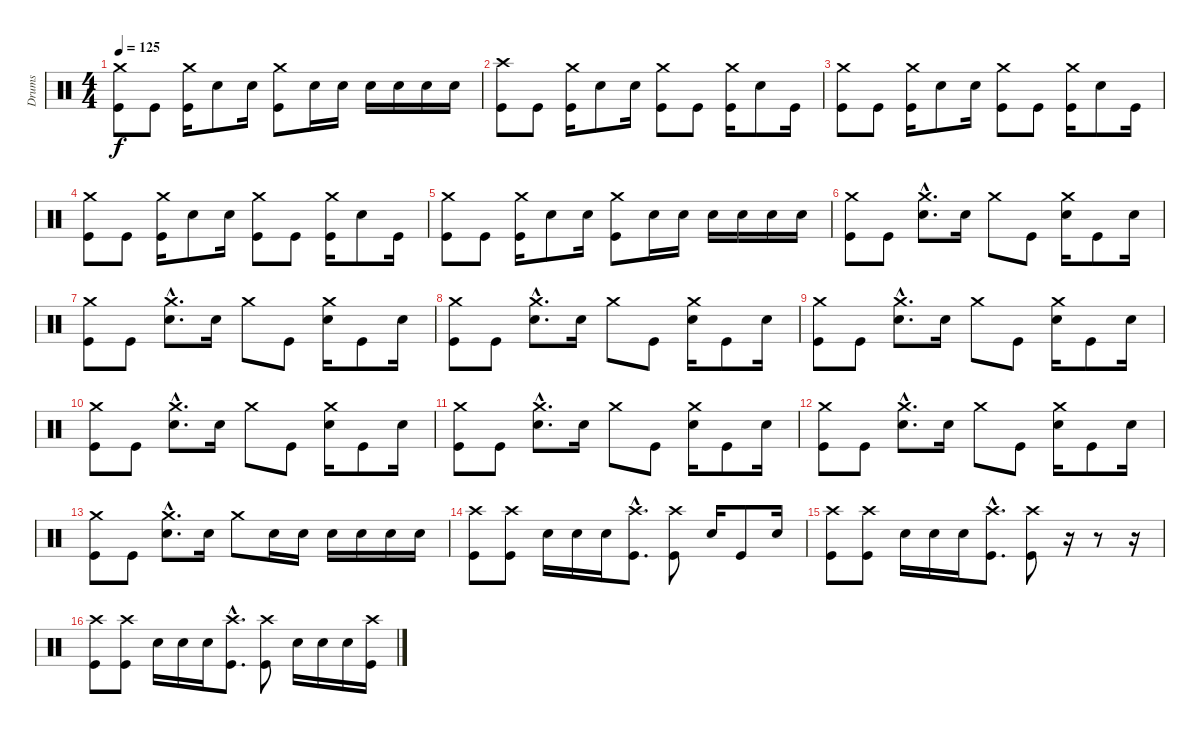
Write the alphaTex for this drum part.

\track ("Drums" "Drums") {instrument percussion}
\staff {score}
\articulation defaults
\ts (4 4)
\tempo 125
\clef neutral
\ks c
("Kick (hit)" "Crash medium (hit)").8{dy f} "Kick (hit)".8 ("Kick (hit)" "Crash medium (hit)").16 "Snare (hit) 2".8 "Snare (hit) 2".16 ("Kick (hit)" "Crash medium (hit)").8 "Snare (hit) 2".16 "Snare (hit) 2".16 "Snare (hit) 2".16 "Snare (hit) 2".16 "Snare (hit) 2".16 "Snare (hit) 2".16 |
("Kick (hit)" "Crash high (hit)").8 "Kick (hit)".8 ("Kick (hit)" "Crash medium (hit)").16 "Snare (hit) 2".8 "Snare (hit) 2".16 ("Kick (hit)" "Crash medium (hit)").8 "Kick (hit)".8 ("Kick (hit)" "Crash medium (hit)").16 "Snare (hit) 2".8 "Kick (hit)".16 |
("Kick (hit)" "Crash medium (hit)").8 "Kick (hit)".8 ("Kick (hit)" "Crash medium (hit)").16 "Snare (hit) 2".8 "Snare (hit) 2".16 ("Kick (hit)" "Crash medium (hit)").8 "Kick (hit)".8 ("Kick (hit)" "Crash medium (hit)").16 "Snare (hit) 2".8 "Kick (hit)".16 |
("Kick (hit)" "Crash medium (hit)").8 "Kick (hit)".8 ("Kick (hit)" "Crash medium (hit)").16 "Snare (hit) 2".8 "Snare (hit) 2".16 ("Kick (hit)" "Crash medium (hit)").8 "Kick (hit)".8 ("Kick (hit)" "Crash medium (hit)").16 "Snare (hit) 2".8 "Kick (hit)".16 |
("Kick (hit)" "Crash medium (hit)").8 "Kick (hit)".8 ("Kick (hit)" "Crash medium (hit)").16 "Snare (hit) 2".8 "Snare (hit) 2".16 ("Kick (hit)" "Crash medium (hit)").8 "Snare (hit) 2".16 "Snare (hit) 2".16 "Snare (hit) 2".16 "Snare (hit) 2".16 "Snare (hit) 2".16 "Snare (hit) 2".16 |
("Kick (hit)" "Crash medium (hit)").8 "Kick (hit)".8 ("Snare (hit) 2"{hac} "Crash medium (hit)"{hac}).8{d} "Snare (hit) 2".16 "Crash medium (hit)".8 "Kick (hit)".8 ("Snare (hit) 2" "Crash medium (hit)").16 "Kick (hit)".8 "Snare (hit) 2".16 |
("Kick (hit)" "Crash medium (hit)").8 "Kick (hit)".8 ("Snare (hit) 2"{hac} "Crash medium (hit)"{hac}).8{d} "Snare (hit) 2".16 "Crash medium (hit)".8 "Kick (hit)".8 ("Snare (hit) 2" "Crash medium (hit)").16 "Kick (hit)".8 "Snare (hit) 2".16 |
("Kick (hit)" "Crash medium (hit)").8 "Kick (hit)".8 ("Snare (hit) 2"{hac} "Crash medium (hit)"{hac}).8{d} "Snare (hit) 2".16 "Crash medium (hit)".8 "Kick (hit)".8 ("Snare (hit) 2" "Crash medium (hit)").16 "Kick (hit)".8 "Snare (hit) 2".16 |
("Kick (hit)" "Crash medium (hit)").8 "Kick (hit)".8 ("Snare (hit) 2"{hac} "Crash medium (hit)"{hac}).8{d} "Snare (hit) 2".16 "Crash medium (hit)".8 "Kick (hit)".8 ("Snare (hit) 2" "Crash medium (hit)").16 "Kick (hit)".8 "Snare (hit) 2".16 |
("Kick (hit)" "Crash medium (hit)").8 "Kick (hit)".8 ("Snare (hit) 2"{hac} "Crash medium (hit)"{hac}).8{d} "Snare (hit) 2".16 "Crash medium (hit)".8 "Kick (hit)".8 ("Snare (hit) 2" "Crash medium (hit)").16 "Kick (hit)".8 "Snare (hit) 2".16 |
("Kick (hit)" "Crash medium (hit)").8 "Kick (hit)".8 ("Snare (hit) 2"{hac} "Crash medium (hit)"{hac}).8{d} "Snare (hit) 2".16 "Crash medium (hit)".8 "Kick (hit)".8 ("Snare (hit) 2" "Crash medium (hit)").16 "Kick (hit)".8 "Snare (hit) 2".16 |
("Kick (hit)" "Crash medium (hit)").8 "Kick (hit)".8 ("Snare (hit) 2"{hac} "Crash medium (hit)"{hac}).8{d} "Snare (hit) 2".16 "Crash medium (hit)".8 "Kick (hit)".8 ("Snare (hit) 2" "Crash medium (hit)").16 "Kick (hit)".8 "Snare (hit) 2".16 |
("Kick (hit)" "Crash medium (hit)").8 "Kick (hit)".8 ("Snare (hit) 2"{hac} "Crash medium (hit)"{hac}).8{d} "Snare (hit) 2".16 "Crash medium (hit)".8 "Snare (hit) 2".16 "Snare (hit) 2".16 "Snare (hit) 2".16 "Snare (hit) 2".16 "Snare (hit) 2".16 "Snare (hit) 2".16 |
("Kick (hit)" "Crash high (hit)").8 ("Kick (hit)" "Crash high (hit)").8 "Snare (hit) 2".16 "Snare (hit) 2".16 "Snare (hit) 2".16 ("Kick (hit)"{hac} "Crash high (hit)"{hac}).8{d} ("Kick (hit)" "Crash high (hit)").8 "Snare (hit) 2".16 "Kick (hit)".8 "Snare (hit) 2".16 |
("Kick (hit)" "Crash high (hit)").8 ("Kick (hit)" "Crash high (hit)").8 "Snare (hit) 2".16 "Snare (hit) 2".16 "Snare (hit) 2".16 ("Kick (hit)"{hac} "Crash high (hit)"{hac}).8{d} ("Kick (hit)" "Crash high (hit)").8 r.16 r.8 r.16 |
("Kick (hit)" "Crash high (hit)").8 ("Kick (hit)" "Crash high (hit)").8 "Snare (hit) 2".16 "Snare (hit) 2".16 "Snare (hit) 2".16 ("Kick (hit)"{hac} "Crash high (hit)"{hac}).8{d} ("Kick (hit)" "Crash high (hit)").8 "Snare (hit) 2".16 "Snare (hit) 2".16 "Snare (hit) 2".16 ("Kick (hit)" "Crash high (hit)").16
